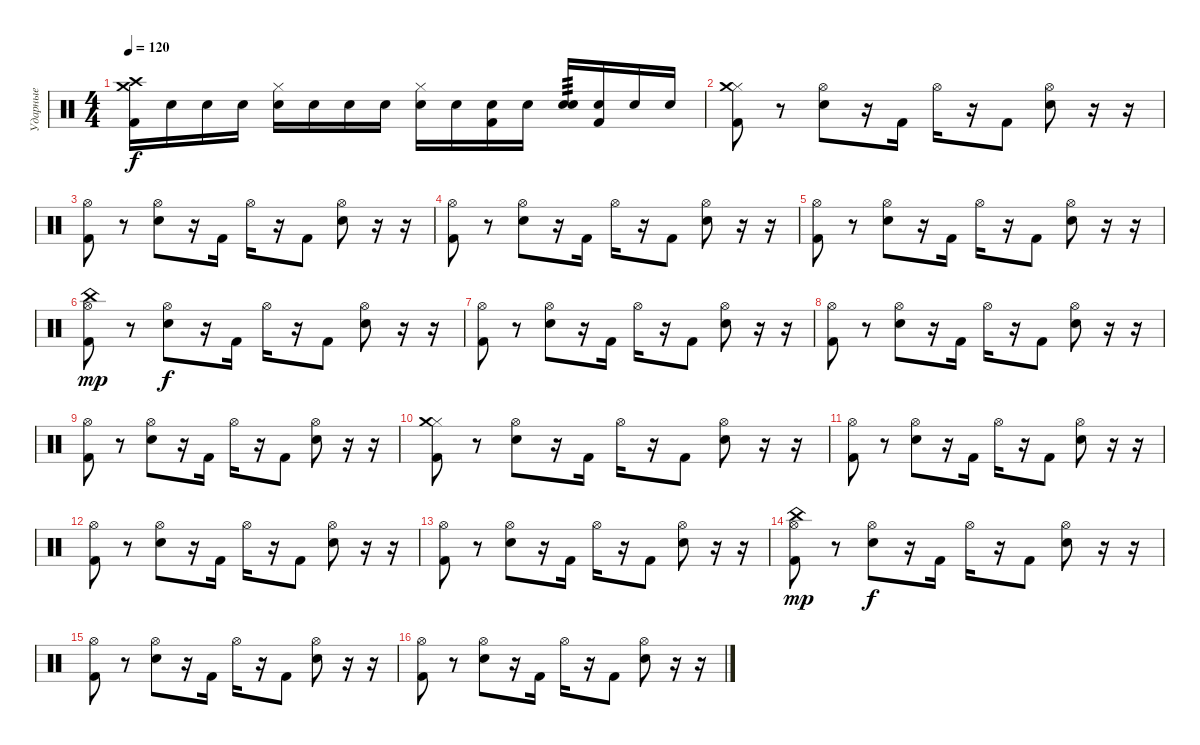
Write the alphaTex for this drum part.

\track ("Ударные" "Ударные") {instrument percussion}
\staff {score}
\articulation defaults
\ts (4 4)
\tempo 120
\clef neutral
\ks c
("Crash medium (hit)" "Crash high (hit)" "Kick (hit) 2").16{dy f} "Snare (hit)".16 "Snare (hit)".16 "Snare (hit)".16 ("Snare (hit)" "Hi-Hat (closed)").16 "Snare (hit)".16 "Snare (hit)".16 "Snare (hit)".16 ("Snare (hit)" "Hi-Hat (closed)").16 "Snare (hit)".16 ("Snare (hit)" "Kick (hit) 2").16 "Snare (hit)".16 ("Snare (hit)" "Snare (hit) 2").16{tp 3} ("Snare (hit)" "Kick (hit) 2").16 "Snare (hit)".16 "Snare (hit)".16 |
("Hi-Hat (closed)" "Crash medium (hit)" "Kick (hit) 2").8 r.8 ("Hi-Hat (open)" "Snare (hit) 2").8 r.16 "Kick (hit) 2".16 "Hi-Hat (open)".16 r.16 "Kick (hit) 2".8 ("Hi-Hat (open)" "Snare (hit) 2").8 r.16 r.16 |
("Hi-Hat (open)" "Kick (hit) 2").8 r.8 ("Hi-Hat (open)" "Snare (hit) 2").8 r.16 "Kick (hit) 2".16 "Hi-Hat (open)".16 r.16 "Kick (hit) 2".8 ("Hi-Hat (open)" "Snare (hit) 2").8 r.16 r.16 |
("Hi-Hat (open)" "Kick (hit) 2").8 r.8 ("Hi-Hat (open)" "Snare (hit) 2").8 r.16 "Kick (hit) 2".16 "Hi-Hat (open)".16 r.16 "Kick (hit) 2".8 ("Hi-Hat (open)" "Snare (hit) 2").8 r.16 r.16 |
("Hi-Hat (open)" "Kick (hit) 2").8 r.8 ("Hi-Hat (open)" "Snare (hit) 2").8 r.16 "Kick (hit) 2".16 "Hi-Hat (open)".16 r.16 "Kick (hit) 2".8 ("Hi-Hat (open)" "Snare (hit) 2").8 r.16 r.16 |
("China (hit)" "Hi-Hat (open)" "Kick (hit) 2").8{dy mp} r.8 ("Hi-Hat (open)" "Snare (hit) 2").8{dy f} r.16 "Kick (hit) 2".16 "Hi-Hat (open)".16 r.16 "Kick (hit) 2".8 ("Hi-Hat (open)" "Snare (hit) 2").8 r.16 r.16 |
("Hi-Hat (open)" "Kick (hit) 2").8 r.8 ("Hi-Hat (open)" "Snare (hit) 2").8 r.16 "Kick (hit) 2".16 "Hi-Hat (open)".16 r.16 "Kick (hit) 2".8 ("Hi-Hat (open)" "Snare (hit) 2").8 r.16 r.16 |
("Hi-Hat (open)" "Kick (hit) 2").8 r.8 ("Hi-Hat (open)" "Snare (hit) 2").8 r.16 "Kick (hit) 2".16 "Hi-Hat (open)".16 r.16 "Kick (hit) 2".8 ("Hi-Hat (open)" "Snare (hit) 2").8 r.16 r.16 |
("Hi-Hat (open)" "Kick (hit) 2").8 r.8 ("Hi-Hat (open)" "Snare (hit) 2").8 r.16 "Kick (hit) 2".16 "Hi-Hat (open)".16 r.16 "Kick (hit) 2".8 ("Hi-Hat (open)" "Snare (hit) 2").8 r.16 r.16 |
("Hi-Hat (closed)" "Crash medium (hit)" "Kick (hit) 2").8 r.8 ("Hi-Hat (open)" "Snare (hit) 2").8 r.16 "Kick (hit) 2".16 "Hi-Hat (open)".16 r.16 "Kick (hit) 2".8 ("Hi-Hat (open)" "Snare (hit) 2").8 r.16 r.16 |
("Hi-Hat (open)" "Kick (hit) 2").8 r.8 ("Hi-Hat (open)" "Snare (hit) 2").8 r.16 "Kick (hit) 2".16 "Hi-Hat (open)".16 r.16 "Kick (hit) 2".8 ("Hi-Hat (open)" "Snare (hit) 2").8 r.16 r.16 |
("Hi-Hat (open)" "Kick (hit) 2").8 r.8 ("Hi-Hat (open)" "Snare (hit) 2").8 r.16 "Kick (hit) 2".16 "Hi-Hat (open)".16 r.16 "Kick (hit) 2".8 ("Hi-Hat (open)" "Snare (hit) 2").8 r.16 r.16 |
("Hi-Hat (open)" "Kick (hit) 2").8 r.8 ("Hi-Hat (open)" "Snare (hit) 2").8 r.16 "Kick (hit) 2".16 "Hi-Hat (open)".16 r.16 "Kick (hit) 2".8 ("Hi-Hat (open)" "Snare (hit) 2").8 r.16 r.16 |
("China (hit)" "Hi-Hat (open)" "Kick (hit) 2").8{dy mp} r.8 ("Hi-Hat (open)" "Snare (hit) 2").8{dy f} r.16 "Kick (hit) 2".16 "Hi-Hat (open)".16 r.16 "Kick (hit) 2".8 ("Hi-Hat (open)" "Snare (hit) 2").8 r.16 r.16 |
("Hi-Hat (open)" "Kick (hit) 2").8 r.8 ("Hi-Hat (open)" "Snare (hit) 2").8 r.16 "Kick (hit) 2".16 "Hi-Hat (open)".16 r.16 "Kick (hit) 2".8 ("Hi-Hat (open)" "Snare (hit) 2").8 r.16 r.16 |
("Hi-Hat (open)" "Kick (hit) 2").8 r.8 ("Hi-Hat (open)" "Snare (hit) 2").8 r.16 "Kick (hit) 2".16 "Hi-Hat (open)".16 r.16 "Kick (hit) 2".8 ("Hi-Hat (open)" "Snare (hit) 2").8 r.16 r.16
